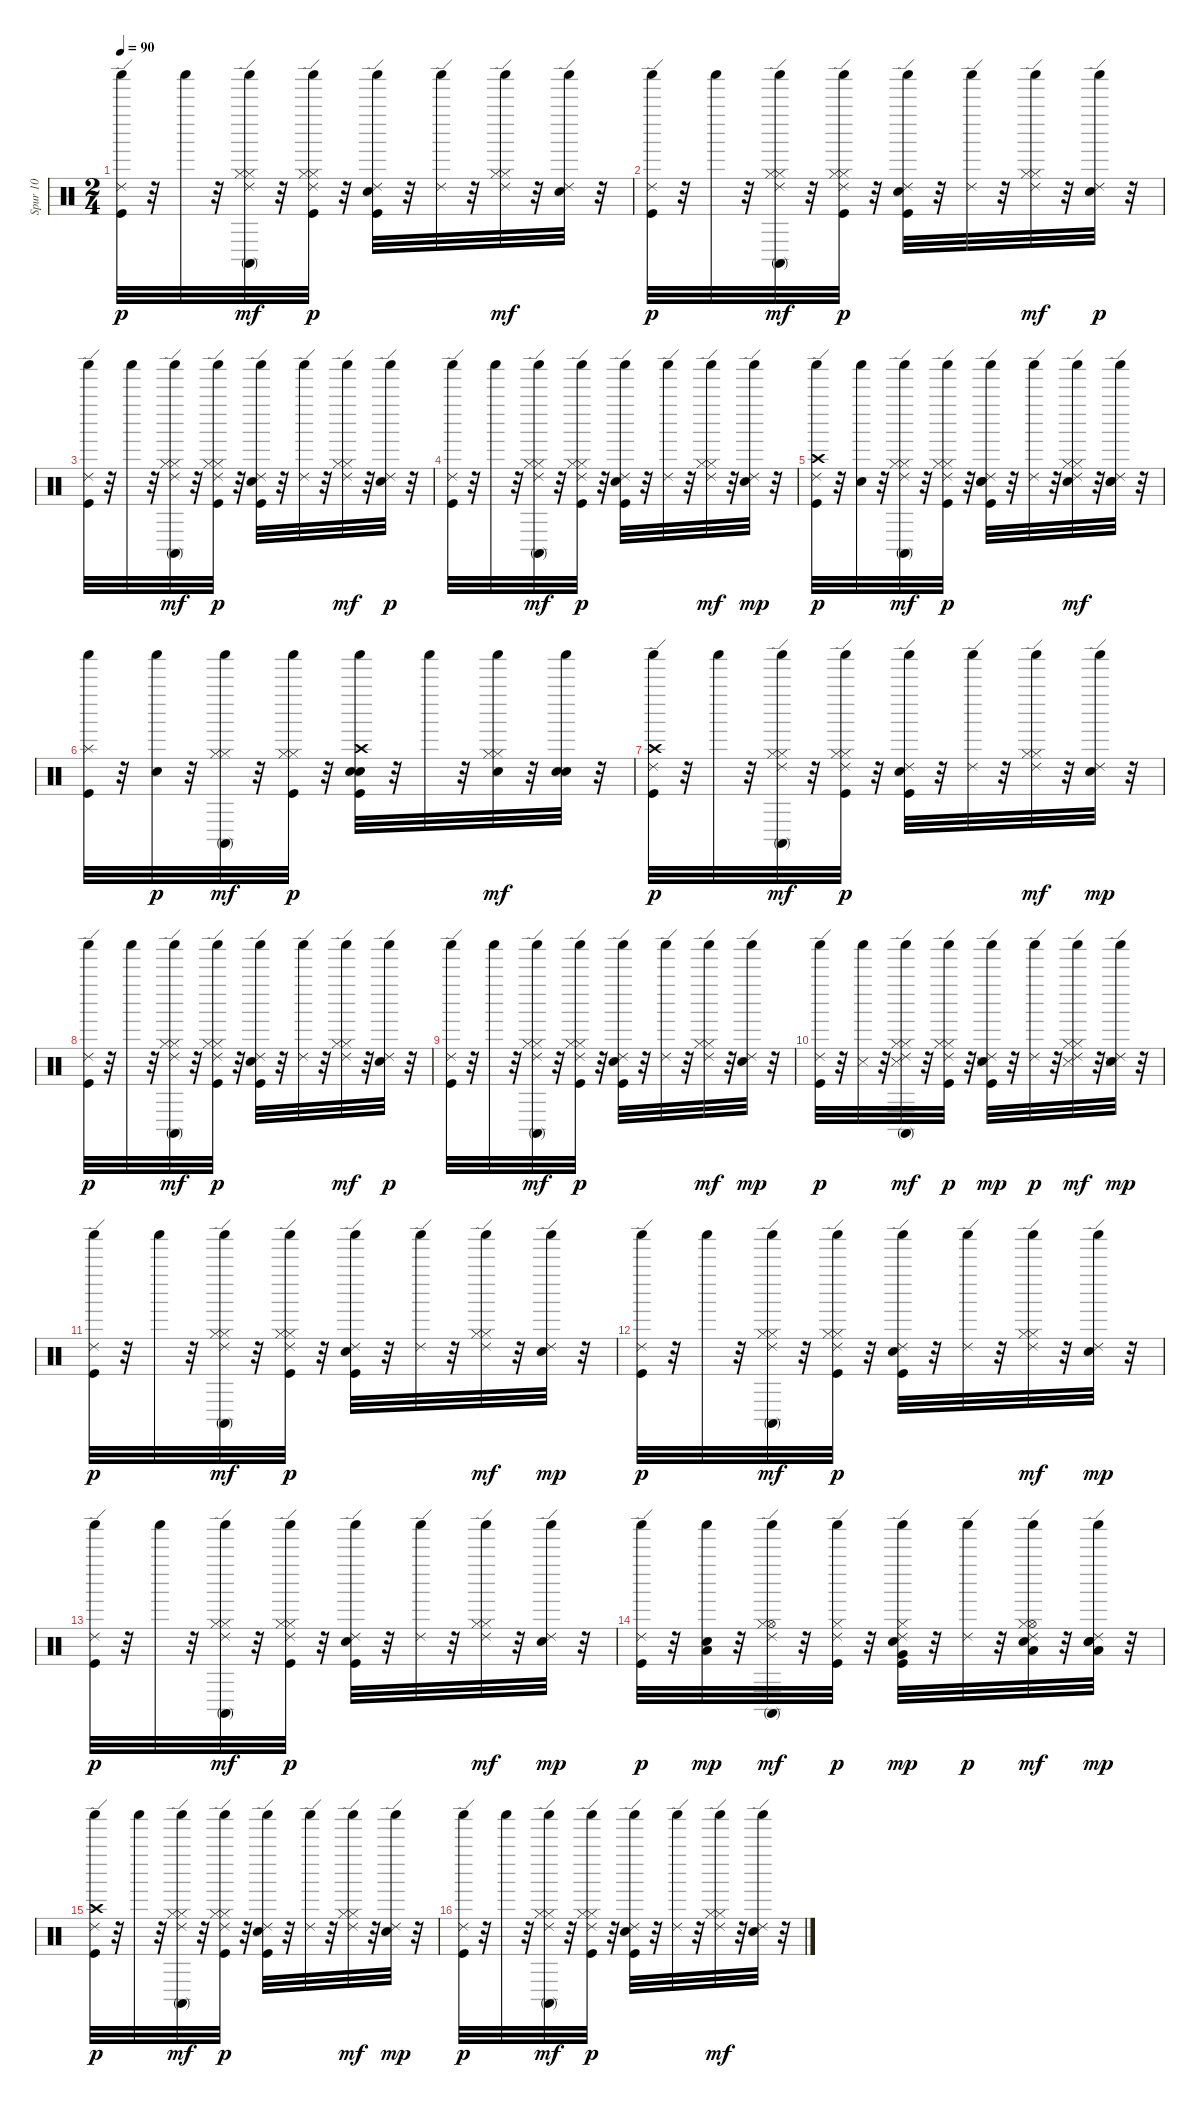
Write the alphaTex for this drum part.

\track ("Spur 10" "Spur 10") {instrument percussion}
\staff {score}
\articulation defaults
\ts (2 4)
\tempo 90
\clef neutral
\ks c
("Ride (edge) 2" "Shaker (hit)" "Kick (hit)").32{dy p} r.32 "Shaker (hit)".32 r.32 ("Ride (edge) 2" "Hi-Hat (closed)" "Shaker (hit)" "Conga high (mute)" "Hi-Hat (closed)").32{dy mf} r.32 ("Ride (edge) 2" "Shaker (hit)" "Kick (hit)" "Hi-Hat (closed)" "Hi-Hat (closed)").32{dy p} r.32 ("Ride (edge) 2" "Shaker (hit)" "Snare (hit) 2" "Kick (hit)").32 r.32 ("Ride (edge) 2" "Shaker (hit)").32 r.32 ("Ride (edge) 2" "Hi-Hat (closed)" "Shaker (hit)" "Hi-Hat (closed)").32{dy mf} r.32 ("Ride (edge) 2" "Shaker (hit)" "Electric Snare (hit)").32 r.32 |
("Ride (edge) 2" "Shaker (hit)" "Kick (hit)").32{dy p} r.32 "Shaker (hit)".32 r.32 ("Ride (edge) 2" "Shaker (hit)" "Hi-Hat (closed)" "Conga high (mute)" "Hi-Hat (closed)").32{dy mf} r.32 ("Ride (edge) 2" "Kick (hit)" "Shaker (hit)" "Hi-Hat (closed)" "Hi-Hat (closed)").32{dy p} r.32 ("Ride (edge) 2" "Snare (hit) 2" "Shaker (hit)" "Kick (hit)").32 r.32 ("Ride (edge) 2" "Shaker (hit)").32 r.32 ("Ride (edge) 2" "Hi-Hat (closed)" "Shaker (hit)" "Hi-Hat (closed)").32{dy mf} r.32 ("Ride (edge) 2" "Electric Snare (hit)" "Shaker (hit)").32{dy p} r.32 |
("Ride (edge) 2" "Shaker (hit)" "Kick (hit)").32 r.32 "Shaker (hit)".32 r.32 ("Ride (edge) 2" "Conga high (mute)" "Shaker (hit)" "Hi-Hat (closed)" "Hi-Hat (closed)").32{dy mf} r.32 ("Ride (edge) 2" "Kick (hit)" "Hi-Hat (closed)" "Shaker (hit)" "Hi-Hat (closed)").32{dy p} r.32 ("Ride (edge) 2" "Snare (hit) 2" "Shaker (hit)" "Kick (hit)").32 r.32 ("Ride (edge) 2" "Shaker (hit)").32 r.32 ("Ride (edge) 2" "Shaker (hit)" "Hi-Hat (closed)" "Hi-Hat (closed)").32{dy mf} r.32 ("Ride (edge) 2" "Electric Snare (hit)" "Shaker (hit)").32{dy p} r.32 |
("Ride (edge) 2" "Shaker (hit)" "Kick (hit)").32 r.32 "Shaker (hit)".32 r.32 ("Ride (edge) 2" "Shaker (hit)" "Conga high (mute)" "Hi-Hat (closed)" "Hi-Hat (closed)").32{dy mf} r.32 ("Ride (edge) 2" "Kick (hit)" "Hi-Hat (closed)" "Shaker (hit)" "Hi-Hat (closed)").32{dy p} r.32 ("Ride (edge) 2" "Shaker (hit)" "Snare (hit) 2" "Kick (hit)").32 r.32 ("Ride (edge) 2" "Shaker (hit)").32 r.32 ("Ride (edge) 2" "Hi-Hat (closed)" "Shaker (hit)" "Hi-Hat (closed)").32{dy mf} r.32 ("Ride (edge) 2" "Shaker (hit)" "Electric Snare (hit)").32{dy mp} r.32 |
("Ride (edge) 2" "Shaker (hit)" "Kick (hit)" "Crash high (hit)").32{dy p} r.32 ("Shaker (hit)" "Snare (hit) 2").32 r.32 ("Ride (edge) 2" "Shaker (hit)" "Hi-Hat (closed)" "Conga high (mute)" "Hi-Hat (closed)").32{dy mf} r.32 ("Ride (edge) 2" "Kick (hit)" "Hi-Hat (closed)" "Shaker (hit)" "Hi-Hat (closed)").32{dy p} r.32 ("Ride (edge) 2" "Snare (hit) 2" "Shaker (hit)" "Kick (hit)" "Electric Snare (hit)").32 r.32 ("Ride (edge) 2" "Shaker (hit)").32 r.32 ("Ride (edge) 2" "Shaker (hit)" "Hi-Hat (closed)" "Snare (hit) 2" "Hi-Hat (closed)").32{dy mf} r.32 ("Ride (edge) 2" "Snare (hit) 2" "Shaker (hit)" "Electric Snare (hit)").32 r.32 |
("Shaker (hit)" "Kick (hit)" "Splash (hit)").32 r.32 ("Shaker (hit)" "Snare (hit) 2").32{dy p} r.32 ("Shaker (hit)" "Hi-Hat (closed)" "Conga high (mute)" "Hi-Hat (closed)").32{dy mf} r.32 ("Kick (hit)" "Hi-Hat (closed)" "Shaker (hit)" "Hi-Hat (closed)").32{dy p} r.32 ("Snare (hit) 2" "Shaker (hit)" "Kick (hit)" "Crash high (hit)" "Electric Snare (hit)").32 r.32 "Shaker (hit)".32 r.32 ("Shaker (hit)" "Hi-Hat (closed)" "Snare (hit) 2" "Hi-Hat (closed)").32{dy mf} r.32 ("Snare (hit) 2" "Shaker (hit)" "Electric Snare (hit)").32 r.32 |
("Shaker (hit)" "Ride (edge) 2" "Crash high (hit)" "Kick (hit)").32{dy p} r.32 "Shaker (hit)".32 r.32 ("Shaker (hit)" "Hi-Hat (closed)" "Conga high (mute)" "Ride (edge) 2" "Hi-Hat (closed)").32{dy mf} r.32 ("Hi-Hat (closed)" "Shaker (hit)" "Kick (hit)" "Ride (edge) 2" "Hi-Hat (closed)").32{dy p} r.32 ("Ride (edge) 2" "Snare (hit) 2" "Shaker (hit)" "Kick (hit)").32 r.32 ("Shaker (hit)" "Ride (edge) 2").32 r.32 ("Shaker (hit)" "Hi-Hat (closed)" "Ride (edge) 2" "Hi-Hat (closed)").32{dy mf} r.32 ("Electric Snare (hit)" "Shaker (hit)" "Ride (edge) 2").32{dy mp} r.32 |
("Shaker (hit)" "Ride (edge) 2" "Kick (hit)").32{dy p} r.32 "Shaker (hit)".32 r.32 ("Hi-Hat (closed)" "Shaker (hit)" "Ride (edge) 2" "Conga high (mute)" "Hi-Hat (closed)").32{dy mf} r.32 ("Shaker (hit)" "Hi-Hat (closed)" "Kick (hit)" "Ride (edge) 2" "Hi-Hat (closed)").32{dy p} r.32 ("Ride (edge) 2" "Shaker (hit)" "Snare (hit) 2" "Kick (hit)").32 r.32 ("Ride (edge) 2" "Shaker (hit)").32 r.32 ("Ride (edge) 2" "Shaker (hit)" "Hi-Hat (closed)" "Hi-Hat (closed)").32{dy mf} r.32 ("Electric Snare (hit)" "Ride (edge) 2" "Shaker (hit)").32{dy p} r.32 |
("Shaker (hit)" "Ride (edge) 2" "Kick (hit)").32 r.32 "Shaker (hit)".32 r.32 ("Conga high (mute)" "Hi-Hat (closed)" "Ride (edge) 2" "Shaker (hit)" "Hi-Hat (closed)").32{dy mf} r.32 ("Kick (hit)" "Shaker (hit)" "Hi-Hat (closed)" "Ride (edge) 2" "Hi-Hat (closed)").32{dy p} r.32 ("Snare (hit) 2" "Ride (edge) 2" "Shaker (hit)" "Kick (hit)").32 r.32 ("Ride (edge) 2" "Shaker (hit)").32 r.32 ("Shaker (hit)" "Hi-Hat (closed)" "Ride (edge) 2" "Hi-Hat (closed)").32{dy mf} r.32 ("Ride (edge) 2" "Shaker (hit)" "Electric Snare (hit)").32{dy mp} r.32 |
("Ride (edge) 2" "Shaker (hit)" "Kick (hit)").32{dy p} r.32 ("Shaker (hit)" "Snare (side stick) 3").32 r.32 ("Ride (edge) 2" "Shaker (hit)" "Conga high (mute)" "Hi-Hat (closed)" "Hi-Hat (closed)" "Snare (side stick) 3").32{dy mf} r.32 ("Kick (hit)" "Hi-Hat (closed)" "Ride (edge) 2" "Shaker (hit)" "Hi-Hat (closed)").32{dy p} r.32 ("Ride (edge) 2" "Shaker (hit)" "Snare (hit) 2" "Snare (side stick) 3" "Kick (hit)").32{dy mp} r.32 ("Ride (edge) 2" "Shaker (hit)").32{dy p} r.32 ("Hi-Hat (closed)" "Shaker (hit)" "Ride (edge) 2" "Snare (side stick) 3" "Hi-Hat (closed)").32{dy mf} r.32 ("Shaker (hit)" "Ride (edge) 2" "Electric Snare (hit)" "Snare (side stick) 3").32{dy mp} r.32 |
("Shaker (hit)" "Ride (edge) 2" "Kick (hit)").32{dy p} r.32 "Shaker (hit)".32 r.32 ("Conga high (mute)" "Hi-Hat (closed)" "Shaker (hit)" "Ride (edge) 2" "Hi-Hat (closed)").32{dy mf} r.32 ("Shaker (hit)" "Hi-Hat (closed)" "Ride (edge) 2" "Kick (hit)" "Hi-Hat (closed)").32{dy p} r.32 ("Snare (hit) 2" "Ride (edge) 2" "Shaker (hit)" "Kick (hit)").32 r.32 ("Ride (edge) 2" "Shaker (hit)").32 r.32 ("Shaker (hit)" "Ride (edge) 2" "Hi-Hat (closed)" "Hi-Hat (closed)").32{dy mf} r.32 ("Electric Snare (hit)" "Shaker (hit)" "Ride (edge) 2").32{dy mp} r.32 |
("Ride (edge) 2" "Shaker (hit)" "Kick (hit)").32{dy p} r.32 "Shaker (hit)".32 r.32 ("Ride (edge) 2" "Shaker (hit)" "Hi-Hat (closed)" "Conga high (mute)" "Hi-Hat (closed)").32{dy mf} r.32 ("Shaker (hit)" "Ride (edge) 2" "Hi-Hat (closed)" "Kick (hit)" "Hi-Hat (closed)").32{dy p} r.32 ("Ride (edge) 2" "Shaker (hit)" "Snare (hit) 2" "Kick (hit)").32 r.32 ("Ride (edge) 2" "Shaker (hit)").32 r.32 ("Hi-Hat (closed)" "Ride (edge) 2" "Shaker (hit)" "Hi-Hat (closed)").32{dy mf} r.32 ("Shaker (hit)" "Electric Snare (hit)" "Ride (edge) 2").32{dy mp} r.32 |
("Shaker (hit)" "Ride (edge) 2" "Kick (hit)").32{dy p} r.32 "Shaker (hit)".32 r.32 ("Conga high (mute)" "Hi-Hat (closed)" "Shaker (hit)" "Ride (edge) 2" "Hi-Hat (closed)").32{dy mf} r.32 ("Kick (hit)" "Ride (edge) 2" "Hi-Hat (closed)" "Shaker (hit)" "Hi-Hat (closed)").32{dy p} r.32 ("Snare (hit) 2" "Ride (edge) 2" "Shaker (hit)" "Kick (hit)").32 r.32 ("Ride (edge) 2" "Shaker (hit)").32 r.32 ("Ride (edge) 2" "Shaker (hit)" "Hi-Hat (closed)" "Hi-Hat (closed)").32{dy mf} r.32 ("Shaker (hit)" "Electric Snare (hit)" "Ride (edge) 2").32{dy mp} r.32 |
("Shaker (hit)" "Ride (edge) 2" "Kick (hit)").32{dy p} r.32 ("Shaker (hit)" "Low Tom (hit)" "Electric Snare (hit)").32{dy mp} r.32 ("Conga high (mute)" "Shaker (hit)" "Ride (edge) 2" "Hi-Hat (open)" "Hi-Hat (closed)").32{dy mf} r.32 ("Shaker (hit)" "Kick (hit)" "Ride (edge) 2" "Hi-Hat (closed)").32{dy p} r.32 ("Very Low Tom (hit)" "Snare (hit) 2" "Ride (edge) 2" "Shaker (hit)" "Hi-Hat (closed)" "Kick (hit)").32{dy mp} r.32 ("Ride (edge) 2" "Shaker (hit)").32{dy p} r.32 ("Ride (edge) 2" "Shaker (hit)" "Low Floor Tom (hit)" "Snare (hit) 2" "Hi-Hat (open)" "Hi-Hat (closed)").32{dy mf} r.32 ("Shaker (hit)" "Low Floor Tom (hit)" "Electric Snare (hit)" "Snare (hit) 2" "Ride (edge) 2").32{dy mp} r.32 |
("Shaker (hit)" "Ride (edge) 2" "Kick (hit)" "Crash high (hit)").32{dy p} r.32 "Shaker (hit)".32 r.32 ("Shaker (hit)" "Conga high (mute)" "Hi-Hat (closed)" "Ride (edge) 2" "Hi-Hat (closed)").32{dy mf} r.32 ("Kick (hit)" "Hi-Hat (closed)" "Ride (edge) 2" "Shaker (hit)" "Hi-Hat (closed)").32{dy p} r.32 ("Shaker (hit)" "Ride (edge) 2" "Snare (hit) 2" "Kick (hit)").32 r.32 ("Ride (edge) 2" "Shaker (hit)").32 r.32 ("Shaker (hit)" "Ride (edge) 2" "Hi-Hat (closed)" "Hi-Hat (closed)").32{dy mf} r.32 ("Electric Snare (hit)" "Shaker (hit)" "Ride (edge) 2").32{dy mp} r.32 |
("Ride (edge) 2" "Shaker (hit)" "Kick (hit)").32{dy p} r.32 "Shaker (hit)".32 r.32 ("Ride (edge) 2" "Hi-Hat (closed)" "Shaker (hit)" "Conga high (mute)" "Hi-Hat (closed)").32{dy mf} r.32 ("Hi-Hat (closed)" "Kick (hit)" "Shaker (hit)" "Ride (edge) 2" "Hi-Hat (closed)").32{dy p} r.32 ("Ride (edge) 2" "Snare (hit) 2" "Shaker (hit)" "Kick (hit)").32 r.32 ("Shaker (hit)" "Ride (edge) 2").32 r.32 ("Shaker (hit)" "Ride (edge) 2" "Hi-Hat (closed)" "Hi-Hat (closed)").32{dy mf} r.32 ("Shaker (hit)" "Ride (edge) 2" "Electric Snare (hit)").32 r.32
